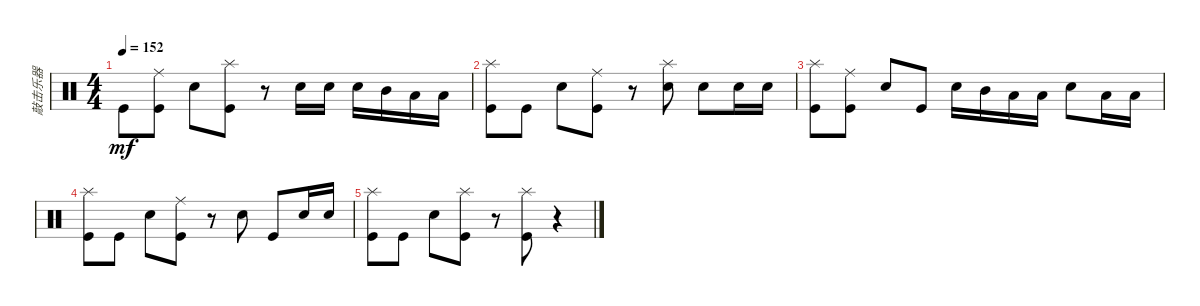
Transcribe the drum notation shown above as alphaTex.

\track ("敲击乐器" "敲击乐器") {instrument percussion}
\staff {score}
\articulation defaults
\ts (4 4)
\tempo 152
\clef neutral
\ks c "Kick (hit)".8{dy mf}
("Ride (middle)" "Kick (hit)").8 "Snare (hit) 2".8 ("Splash (hit)" "Kick (hit)").8 r.8 "Snare (hit) 2".16 "Snare (hit) 2".16 "Snare (hit) 2".16 "Mid Tom (hit)".16 "Low Tom (hit)".16 "Low Floor Tom (hit)".16 |
("Splash (hit)" "Kick (hit)").8 "Kick (hit)".8 "Snare (hit) 2".8 ("Ride (middle)" "Kick (hit)").8 r.8 ("Splash (hit)" "Snare (hit) 2").8 "Snare (hit) 2".8 "Snare (hit) 2".16 "Snare (hit) 2".16 |
("Splash (hit)" "Kick (hit)").8 ("Ride (middle)" "Kick (hit)").8 "Snare (hit) 2".8 "Kick (hit)".8 "Snare (hit) 2".16 "Mid Tom (hit)".16 "Low Tom (hit)".16 "Low Floor Tom (hit)".16 "Snare (hit) 2".8 "Low Tom (hit)".16 "Low Tom (hit)".16 |
("Splash (hit)" "Kick (hit)").8 "Kick (hit)".8 "Snare (hit) 2".8 ("Ride (middle)" "Kick (hit)").8 r.8 "Snare (hit) 2".8 "Kick (hit)".8 "Snare (hit) 2".16 "Snare (hit) 2".16 |
("Splash (hit)" "Kick (hit)").8 "Kick (hit)".8 "Snare (hit) 2".8 ("Splash (hit)" "Kick (hit)").8 r.8 ("Splash (hit)" "Kick (hit)").8 r.4
